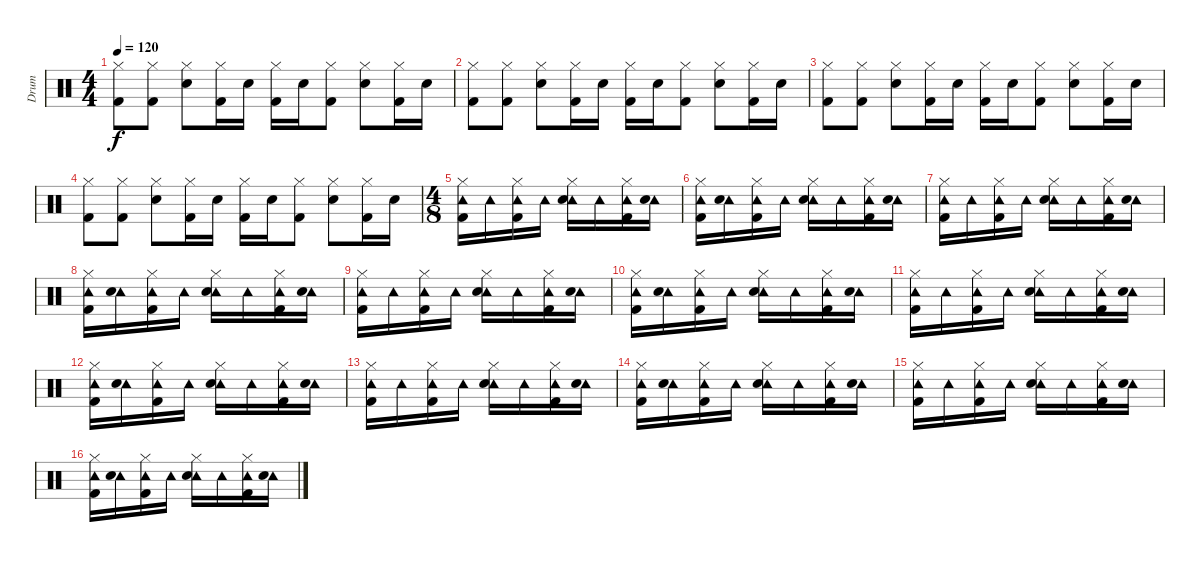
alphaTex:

\track ("Drum" "Drum") {instrument percussion}
\staff {score}
\articulation defaults
\ts (4 4)
\tempo 120
\clef neutral
\ks c
("Hi-Hat (closed)" "Kick (hit) 2").8{dy f} ("Hi-Hat (closed)" "Kick (hit) 2").8 ("Hi-Hat (closed)" "Electric Snare (hit)").8 ("Hi-Hat (closed)" "Kick (hit) 2").16 "Electric Snare (hit)".16 ("Hi-Hat (closed)" "Kick (hit) 2").16 "Electric Snare (hit)".16 ("Hi-Hat (closed)" "Kick (hit) 2").8 ("Hi-Hat (closed)" "Electric Snare (hit)").8 ("Hi-Hat (closed)" "Kick (hit) 2").16 "Electric Snare (hit)".16 |
("Hi-Hat (closed)" "Kick (hit) 2").8 ("Hi-Hat (closed)" "Kick (hit) 2").8 ("Hi-Hat (closed)" "Electric Snare (hit)").8 ("Hi-Hat (closed)" "Kick (hit) 2").16 "Electric Snare (hit)".16 ("Hi-Hat (closed)" "Kick (hit) 2").16 "Electric Snare (hit)".16 ("Hi-Hat (closed)" "Kick (hit) 2").8 ("Hi-Hat (closed)" "Electric Snare (hit)").8 ("Hi-Hat (closed)" "Kick (hit) 2").16 "Electric Snare (hit)".16 |
("Hi-Hat (closed)" "Kick (hit) 2").8 ("Hi-Hat (closed)" "Kick (hit) 2").8 ("Hi-Hat (closed)" "Electric Snare (hit)").8 ("Hi-Hat (closed)" "Kick (hit) 2").16 "Electric Snare (hit)".16 ("Hi-Hat (closed)" "Kick (hit) 2").16 "Electric Snare (hit)".16 ("Hi-Hat (closed)" "Kick (hit) 2").8 ("Hi-Hat (closed)" "Electric Snare (hit)").8 ("Hi-Hat (closed)" "Kick (hit) 2").16 "Electric Snare (hit)".16 |
("Hi-Hat (closed)" "Kick (hit) 2").8 ("Hi-Hat (closed)" "Kick (hit) 2").8 ("Hi-Hat (closed)" "Electric Snare (hit)").8 ("Hi-Hat (closed)" "Kick (hit) 2").16 "Electric Snare (hit)".16 ("Hi-Hat (closed)" "Kick (hit) 2").16 "Electric Snare (hit)".16 ("Hi-Hat (closed)" "Kick (hit) 2").8 ("Hi-Hat (closed)" "Electric Snare (hit)").8 ("Hi-Hat (closed)" "Kick (hit) 2").16 "Electric Snare (hit)".16 |
\ts (4 8)
("Hi-Hat (closed)" "Tambourine (hit)" "Kick (hit) 2").16 "Tambourine (hit)".16 ("Hi-Hat (closed)" "Tambourine (hit)" "Kick (hit) 2").16 "Tambourine (hit)".16 ("Hi-Hat (closed)" "Tambourine (hit)" "Electric Snare (hit)").16 "Tambourine (hit)".16 ("Hi-Hat (closed)" "Tambourine (hit)" "Kick (hit) 2").16 ("Tambourine (hit)" "Electric Snare (hit)").16 |
("Hi-Hat (closed)" "Tambourine (hit)" "Kick (hit) 2").16 ("Tambourine (hit)" "Electric Snare (hit)").16 ("Hi-Hat (closed)" "Tambourine (hit)" "Kick (hit) 2").16 "Tambourine (hit)".16 ("Hi-Hat (closed)" "Tambourine (hit)" "Electric Snare (hit)").16 "Tambourine (hit)".16 ("Hi-Hat (closed)" "Tambourine (hit)" "Kick (hit) 2").16 ("Tambourine (hit)" "Electric Snare (hit)").16 |
("Hi-Hat (closed)" "Tambourine (hit)" "Kick (hit) 2").16 "Tambourine (hit)".16 ("Hi-Hat (closed)" "Tambourine (hit)" "Kick (hit) 2").16 "Tambourine (hit)".16 ("Hi-Hat (closed)" "Tambourine (hit)" "Electric Snare (hit)").16 "Tambourine (hit)".16 ("Hi-Hat (closed)" "Tambourine (hit)" "Kick (hit) 2").16 ("Tambourine (hit)" "Electric Snare (hit)").16 |
("Hi-Hat (closed)" "Tambourine (hit)" "Kick (hit) 2").16 ("Tambourine (hit)" "Electric Snare (hit)").16 ("Hi-Hat (closed)" "Tambourine (hit)" "Kick (hit) 2").16 "Tambourine (hit)".16 ("Hi-Hat (closed)" "Tambourine (hit)" "Electric Snare (hit)").16 "Tambourine (hit)".16 ("Hi-Hat (closed)" "Tambourine (hit)" "Kick (hit) 2").16 ("Tambourine (hit)" "Electric Snare (hit)").16 |
("Hi-Hat (closed)" "Tambourine (hit)" "Kick (hit) 2").16 "Tambourine (hit)".16 ("Hi-Hat (closed)" "Tambourine (hit)" "Kick (hit) 2").16 "Tambourine (hit)".16 ("Hi-Hat (closed)" "Tambourine (hit)" "Electric Snare (hit)").16 "Tambourine (hit)".16 ("Hi-Hat (closed)" "Tambourine (hit)" "Kick (hit) 2").16 ("Tambourine (hit)" "Electric Snare (hit)").16 |
("Hi-Hat (closed)" "Tambourine (hit)" "Kick (hit) 2").16 ("Tambourine (hit)" "Electric Snare (hit)").16 ("Hi-Hat (closed)" "Tambourine (hit)" "Kick (hit) 2").16 "Tambourine (hit)".16 ("Hi-Hat (closed)" "Tambourine (hit)" "Electric Snare (hit)").16 "Tambourine (hit)".16 ("Hi-Hat (closed)" "Tambourine (hit)" "Kick (hit) 2").16 ("Tambourine (hit)" "Electric Snare (hit)").16 |
("Hi-Hat (closed)" "Tambourine (hit)" "Kick (hit) 2").16 "Tambourine (hit)".16 ("Hi-Hat (closed)" "Tambourine (hit)" "Kick (hit) 2").16 "Tambourine (hit)".16 ("Hi-Hat (closed)" "Tambourine (hit)" "Electric Snare (hit)").16 "Tambourine (hit)".16 ("Hi-Hat (closed)" "Tambourine (hit)" "Kick (hit) 2").16 ("Tambourine (hit)" "Electric Snare (hit)").16 |
("Hi-Hat (closed)" "Tambourine (hit)" "Kick (hit) 2").16 ("Tambourine (hit)" "Electric Snare (hit)").16 ("Hi-Hat (closed)" "Tambourine (hit)" "Kick (hit) 2").16 "Tambourine (hit)".16 ("Hi-Hat (closed)" "Tambourine (hit)" "Electric Snare (hit)").16 "Tambourine (hit)".16 ("Hi-Hat (closed)" "Tambourine (hit)" "Kick (hit) 2").16 ("Tambourine (hit)" "Electric Snare (hit)").16 |
("Hi-Hat (closed)" "Tambourine (hit)" "Kick (hit) 2").16 "Tambourine (hit)".16 ("Hi-Hat (closed)" "Tambourine (hit)" "Kick (hit) 2").16 "Tambourine (hit)".16 ("Hi-Hat (closed)" "Tambourine (hit)" "Electric Snare (hit)").16 "Tambourine (hit)".16 ("Hi-Hat (closed)" "Tambourine (hit)" "Kick (hit) 2").16 ("Tambourine (hit)" "Electric Snare (hit)").16 |
("Hi-Hat (closed)" "Tambourine (hit)" "Kick (hit) 2").16 ("Tambourine (hit)" "Electric Snare (hit)").16 ("Hi-Hat (closed)" "Tambourine (hit)" "Kick (hit) 2").16 "Tambourine (hit)".16 ("Hi-Hat (closed)" "Tambourine (hit)" "Electric Snare (hit)").16 "Tambourine (hit)".16 ("Hi-Hat (closed)" "Tambourine (hit)" "Kick (hit) 2").16 ("Tambourine (hit)" "Electric Snare (hit)").16 |
("Hi-Hat (closed)" "Tambourine (hit)" "Kick (hit) 2").16 "Tambourine (hit)".16 ("Hi-Hat (closed)" "Tambourine (hit)" "Kick (hit) 2").16 "Tambourine (hit)".16 ("Hi-Hat (closed)" "Tambourine (hit)" "Electric Snare (hit)").16 "Tambourine (hit)".16 ("Hi-Hat (closed)" "Tambourine (hit)" "Kick (hit) 2").16 ("Tambourine (hit)" "Electric Snare (hit)").16 |
("Hi-Hat (closed)" "Tambourine (hit)" "Kick (hit) 2").16 ("Tambourine (hit)" "Electric Snare (hit)").16 ("Hi-Hat (closed)" "Tambourine (hit)" "Kick (hit) 2").16 "Tambourine (hit)".16 ("Hi-Hat (closed)" "Tambourine (hit)" "Electric Snare (hit)").16 "Tambourine (hit)".16 ("Hi-Hat (closed)" "Tambourine (hit)" "Kick (hit) 2").16 ("Tambourine (hit)" "Electric Snare (hit)").16
